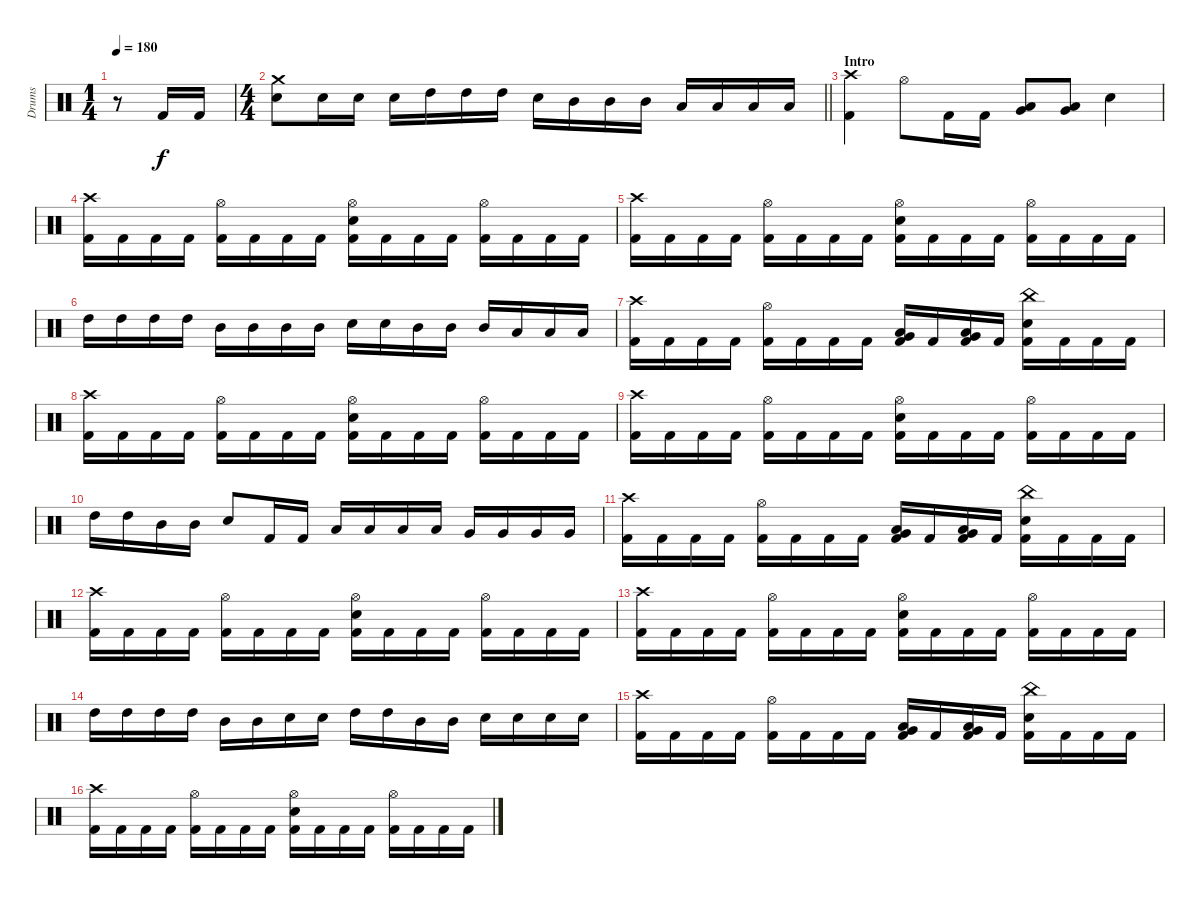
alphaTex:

\track ("Drums" "Drums") {instrument percussion}
\staff {score}
\articulation defaults
\ts (1 4)
\tempo 180
\clef neutral
\ks c
r.8{dy f} "Kick (hit) 2".16 "Kick (hit) 2".16 |
\ts (4 4)
\barLineRight lightlight
("Crash medium (hit)" "Electric Snare (hit)").8 "Electric Snare (hit)".16 "Electric Snare (hit)".16 "Electric Snare (hit)".16 "High Tom (hit)".16 "High Tom (hit)".16 "High Tom (hit)".16 "Electric Snare (hit)".16 "Mid Tom (hit)".16 "Mid Tom (hit)".16 "Mid Tom (hit)".16 "Low Tom (hit)".16 "Low Tom (hit)".16 "Low Tom (hit)".16 "Low Tom (hit)".16 |
\section ("" "Intro")
("Crash high (hit)" "Kick (hit) 2").4 "Hi-Hat (open)".8 "Kick (hit) 2".16 "Kick (hit) 2".16 ("Low Tom (hit)" "Very Low Tom (hit)").8 ("Low Tom (hit)" "Very Low Tom (hit)").8 "Electric Snare (hit)".4 |
("Crash high (hit)" "Kick (hit) 2").16 "Kick (hit) 2".16 "Kick (hit) 2".16 "Kick (hit) 2".16 ("Hi-Hat (open)" "Kick (hit) 2").16 "Kick (hit) 2".16 "Kick (hit) 2".16 "Kick (hit) 2".16 ("Hi-Hat (open)" "Electric Snare (hit)" "Kick (hit) 2").16 "Kick (hit) 2".16 "Kick (hit) 2".16 "Kick (hit) 2".16 ("Hi-Hat (open)" "Kick (hit) 2").16 "Kick (hit) 2".16 "Kick (hit) 2".16 "Kick (hit) 2".16 |
("Crash high (hit)" "Kick (hit) 2").16 "Kick (hit) 2".16 "Kick (hit) 2".16 "Kick (hit) 2".16 ("Hi-Hat (open)" "Kick (hit) 2").16 "Kick (hit) 2".16 "Kick (hit) 2".16 "Kick (hit) 2".16 ("Hi-Hat (open)" "Electric Snare (hit)" "Kick (hit) 2").16 "Kick (hit) 2".16 "Kick (hit) 2".16 "Kick (hit) 2".16 ("Hi-Hat (open)" "Kick (hit) 2").16 "Kick (hit) 2".16 "Kick (hit) 2".16 "Kick (hit) 2".16 |
"High Tom (hit)".16 "High Tom (hit)".16 "High Tom (hit)".16 "High Tom (hit)".16 "Mid Tom (hit)".16 "Mid Tom (hit)".16 "Mid Tom (hit)".16 "Mid Tom (hit)".16 "Electric Snare (hit)".16 "Electric Snare (hit)".16 "Mid Tom (hit)".16 "Mid Tom (hit)".16 "Mid Tom (hit)".16 "Low Tom (hit)".16 "Low Tom (hit)".16 "Low Tom (hit)".16 |
("Crash high (hit)" "Kick (hit) 2").16 "Kick (hit) 2".16 "Kick (hit) 2".16 "Kick (hit) 2".16 ("Hi-Hat (open)" "Kick (hit) 2").16 "Kick (hit) 2".16 "Kick (hit) 2".16 "Kick (hit) 2".16 ("Low Tom (hit)" "Very Low Tom (hit)" "Kick (hit) 2").16 "Kick (hit) 2".16 ("Low Tom (hit)" "Very Low Tom (hit)" "Kick (hit) 2").16 "Kick (hit) 2".16 ("China (hit)" "Electric Snare (hit)" "Kick (hit) 2").16 "Kick (hit) 2".16 "Kick (hit) 2".16 "Kick (hit) 2".16 |
("Crash high (hit)" "Kick (hit) 2").16 "Kick (hit) 2".16 "Kick (hit) 2".16 "Kick (hit) 2".16 ("Hi-Hat (open)" "Kick (hit) 2").16 "Kick (hit) 2".16 "Kick (hit) 2".16 "Kick (hit) 2".16 ("Hi-Hat (open)" "Electric Snare (hit)" "Kick (hit) 2").16 "Kick (hit) 2".16 "Kick (hit) 2".16 "Kick (hit) 2".16 ("Hi-Hat (open)" "Kick (hit) 2").16 "Kick (hit) 2".16 "Kick (hit) 2".16 "Kick (hit) 2".16 |
("Crash high (hit)" "Kick (hit) 2").16 "Kick (hit) 2".16 "Kick (hit) 2".16 "Kick (hit) 2".16 ("Hi-Hat (open)" "Kick (hit) 2").16 "Kick (hit) 2".16 "Kick (hit) 2".16 "Kick (hit) 2".16 ("Hi-Hat (open)" "Electric Snare (hit)" "Kick (hit) 2").16 "Kick (hit) 2".16 "Kick (hit) 2".16 "Kick (hit) 2".16 ("Hi-Hat (open)" "Kick (hit) 2").16 "Kick (hit) 2".16 "Kick (hit) 2".16 "Kick (hit) 2".16 |
"High Tom (hit)".16 "High Tom (hit)".16 "Mid Tom (hit)".16 "Mid Tom (hit)".16 "Electric Snare (hit)".8 "Kick (hit) 2".16 "Kick (hit) 2".16 "Low Tom (hit)".16 "Low Tom (hit)".16 "Low Tom (hit)".16 "Low Tom (hit)".16 "Very Low Tom (hit)".16 "Very Low Tom (hit)".16 "Very Low Tom (hit)".16 "Very Low Tom (hit)".16 |
("Crash high (hit)" "Kick (hit) 2").16 "Kick (hit) 2".16 "Kick (hit) 2".16 "Kick (hit) 2".16 ("Hi-Hat (open)" "Kick (hit) 2").16 "Kick (hit) 2".16 "Kick (hit) 2".16 "Kick (hit) 2".16 ("Low Tom (hit)" "Very Low Tom (hit)" "Kick (hit) 2").16 "Kick (hit) 2".16 ("Low Tom (hit)" "Very Low Tom (hit)" "Kick (hit) 2").16 "Kick (hit) 2".16 ("China (hit)" "Electric Snare (hit)" "Kick (hit) 2").16 "Kick (hit) 2".16 "Kick (hit) 2".16 "Kick (hit) 2".16 |
("Crash high (hit)" "Kick (hit) 2").16 "Kick (hit) 2".16 "Kick (hit) 2".16 "Kick (hit) 2".16 ("Hi-Hat (open)" "Kick (hit) 2").16 "Kick (hit) 2".16 "Kick (hit) 2".16 "Kick (hit) 2".16 ("Hi-Hat (open)" "Electric Snare (hit)" "Kick (hit) 2").16 "Kick (hit) 2".16 "Kick (hit) 2".16 "Kick (hit) 2".16 ("Hi-Hat (open)" "Kick (hit) 2").16 "Kick (hit) 2".16 "Kick (hit) 2".16 "Kick (hit) 2".16 |
("Crash high (hit)" "Kick (hit) 2").16 "Kick (hit) 2".16 "Kick (hit) 2".16 "Kick (hit) 2".16 ("Hi-Hat (open)" "Kick (hit) 2").16 "Kick (hit) 2".16 "Kick (hit) 2".16 "Kick (hit) 2".16 ("Hi-Hat (open)" "Electric Snare (hit)" "Kick (hit) 2").16 "Kick (hit) 2".16 "Kick (hit) 2".16 "Kick (hit) 2".16 ("Hi-Hat (open)" "Kick (hit) 2").16 "Kick (hit) 2".16 "Kick (hit) 2".16 "Kick (hit) 2".16 |
"High Tom (hit)".16 "High Tom (hit)".16 "High Tom (hit)".16 "High Tom (hit)".16 "Mid Tom (hit)".16 "Mid Tom (hit)".16 "Electric Snare (hit)".16 "Electric Snare (hit)".16 "High Tom (hit)".16 "High Tom (hit)".16 "Mid Tom (hit)".16 "Mid Tom (hit)".16 "Electric Snare (hit)".16 "Electric Snare (hit)".16 "Electric Snare (hit)".16 "Electric Snare (hit)".16 |
("Crash high (hit)" "Kick (hit) 2").16 "Kick (hit) 2".16 "Kick (hit) 2".16 "Kick (hit) 2".16 ("Hi-Hat (open)" "Kick (hit) 2").16 "Kick (hit) 2".16 "Kick (hit) 2".16 "Kick (hit) 2".16 ("Low Tom (hit)" "Very Low Tom (hit)" "Kick (hit) 2").16 "Kick (hit) 2".16 ("Low Tom (hit)" "Very Low Tom (hit)" "Kick (hit) 2").16 "Kick (hit) 2".16 ("China (hit)" "Electric Snare (hit)" "Kick (hit) 2").16 "Kick (hit) 2".16 "Kick (hit) 2".16 "Kick (hit) 2".16 |
("Crash high (hit)" "Kick (hit) 2").16 "Kick (hit) 2".16 "Kick (hit) 2".16 "Kick (hit) 2".16 ("Hi-Hat (open)" "Kick (hit) 2").16 "Kick (hit) 2".16 "Kick (hit) 2".16 "Kick (hit) 2".16 ("Hi-Hat (open)" "Electric Snare (hit)" "Kick (hit) 2").16 "Kick (hit) 2".16 "Kick (hit) 2".16 "Kick (hit) 2".16 ("Hi-Hat (open)" "Kick (hit) 2").16 "Kick (hit) 2".16 "Kick (hit) 2".16 "Kick (hit) 2".16
